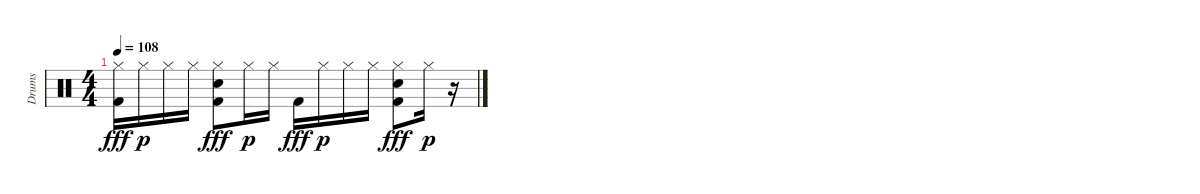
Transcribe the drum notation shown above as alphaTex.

\track ("Drums" "Drums") {instrument percussion}
\staff {score}
\articulation defaults
\ts (4 4)
\tempo 108
\clef neutral
\ks c
("Hi-Hat (closed)" "Kick (hit) 2").16{dy fff} "Hi-Hat (closed)".16{dy p} "Hi-Hat (closed)".16 "Hi-Hat (closed)".16 ("Hi-Hat (closed)" "Hand Clap (hit)" "Kick (hit) 2").8{dy fff} "Hi-Hat (closed)".16{dy p} "Hi-Hat (closed)".16 "Kick (hit) 2".16{dy fff} "Hi-Hat (closed)".16{dy p} "Hi-Hat (closed)".16 "Hi-Hat (closed)".16 ("Hi-Hat (closed)" "Hand Clap (hit)" "Kick (hit) 2").8{dy fff} "Hi-Hat (closed)".16{dy p} r.16
